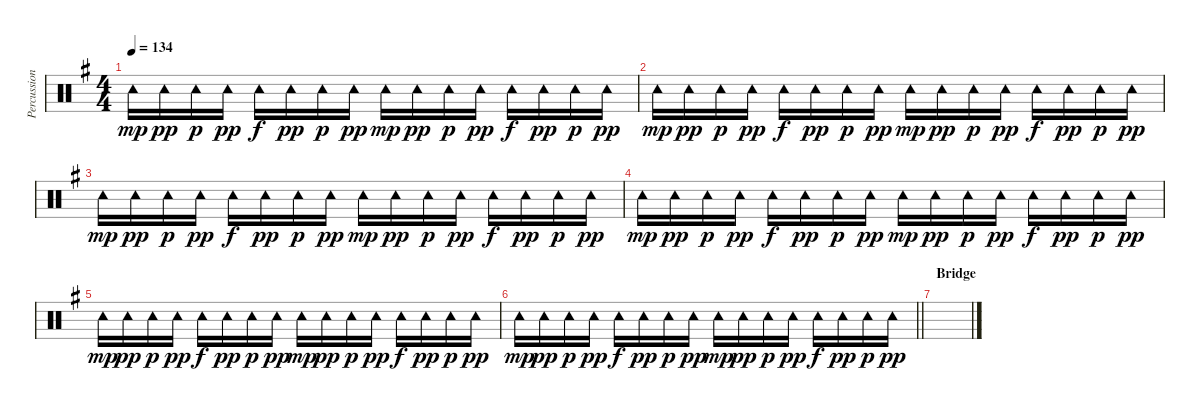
\track ("Percussion" "Percussion") {instrument percussion}
\staff {score}
\articulation defaults
\ts (4 4)
\tempo 134
\clef neutral
\ks eminor "Tambourine (hit)".16{dy mp} "Tambourine (hit)".16{dy pp} "Tambourine (hit)".16{dy p} "Tambourine (hit)".16{dy pp} "Tambourine (hit)".16{dy f} "Tambourine (hit)".16{dy pp} "Tambourine (hit)".16{dy p} "Tambourine (hit)".16{dy pp} "Tambourine (hit)".16{dy mp} "Tambourine (hit)".16{dy pp} "Tambourine (hit)".16{dy p} "Tambourine (hit)".16{dy pp} "Tambourine (hit)".16{dy f} "Tambourine (hit)".16{dy pp} "Tambourine (hit)".16{dy p} "Tambourine (hit)".16{dy pp}
|
"Tambourine (hit)".16{dy mp} "Tambourine (hit)".16{dy pp} "Tambourine (hit)".16{dy p} "Tambourine (hit)".16{dy pp} "Tambourine (hit)".16{dy f} "Tambourine (hit)".16{dy pp} "Tambourine (hit)".16{dy p} "Tambourine (hit)".16{dy pp} "Tambourine (hit)".16{dy mp} "Tambourine (hit)".16{dy pp} "Tambourine (hit)".16{dy p} "Tambourine (hit)".16{dy pp} "Tambourine (hit)".16{dy f} "Tambourine (hit)".16{dy pp} "Tambourine (hit)".16{dy p} "Tambourine (hit)".16{dy pp} |
"Tambourine (hit)".16{dy mp} "Tambourine (hit)".16{dy pp} "Tambourine (hit)".16{dy p} "Tambourine (hit)".16{dy pp} "Tambourine (hit)".16{dy f} "Tambourine (hit)".16{dy pp} "Tambourine (hit)".16{dy p} "Tambourine (hit)".16{dy pp} "Tambourine (hit)".16{dy mp} "Tambourine (hit)".16{dy pp} "Tambourine (hit)".16{dy p} "Tambourine (hit)".16{dy pp} "Tambourine (hit)".16{dy f} "Tambourine (hit)".16{dy pp} "Tambourine (hit)".16{dy p} "Tambourine (hit)".16{dy pp} |
"Tambourine (hit)".16{dy mp} "Tambourine (hit)".16{dy pp} "Tambourine (hit)".16{dy p} "Tambourine (hit)".16{dy pp} "Tambourine (hit)".16{dy f} "Tambourine (hit)".16{dy pp} "Tambourine (hit)".16{dy p} "Tambourine (hit)".16{dy pp} "Tambourine (hit)".16{dy mp} "Tambourine (hit)".16{dy pp} "Tambourine (hit)".16{dy p} "Tambourine (hit)".16{dy pp} "Tambourine (hit)".16{dy f} "Tambourine (hit)".16{dy pp} "Tambourine (hit)".16{dy p} "Tambourine (hit)".16{dy pp} |
"Tambourine (hit)".16{dy mp} "Tambourine (hit)".16{dy pp} "Tambourine (hit)".16{dy p} "Tambourine (hit)".16{dy pp} "Tambourine (hit)".16{dy f} "Tambourine (hit)".16{dy pp} "Tambourine (hit)".16{dy p} "Tambourine (hit)".16{dy pp} "Tambourine (hit)".16{dy mp} "Tambourine (hit)".16{dy pp} "Tambourine (hit)".16{dy p} "Tambourine (hit)".16{dy pp} "Tambourine (hit)".16{dy f} "Tambourine (hit)".16{dy pp} "Tambourine (hit)".16{dy p} "Tambourine (hit)".16{dy pp} |
\barLineRight lightlight "Tambourine (hit)".16{dy mp} "Tambourine (hit)".16{dy pp} "Tambourine (hit)".16{dy p} "Tambourine (hit)".16{dy pp} "Tambourine (hit)".16{dy f} "Tambourine (hit)".16{dy pp} "Tambourine (hit)".16{dy p} "Tambourine (hit)".16{dy pp} "Tambourine (hit)".16{dy mp} "Tambourine (hit)".16{dy pp} "Tambourine (hit)".16{dy p} "Tambourine (hit)".16{dy pp} "Tambourine (hit)".16{dy f} "Tambourine (hit)".16{dy pp} "Tambourine (hit)".16{dy p} "Tambourine (hit)".16{dy pp}
|
\section ("" "Bridge")
